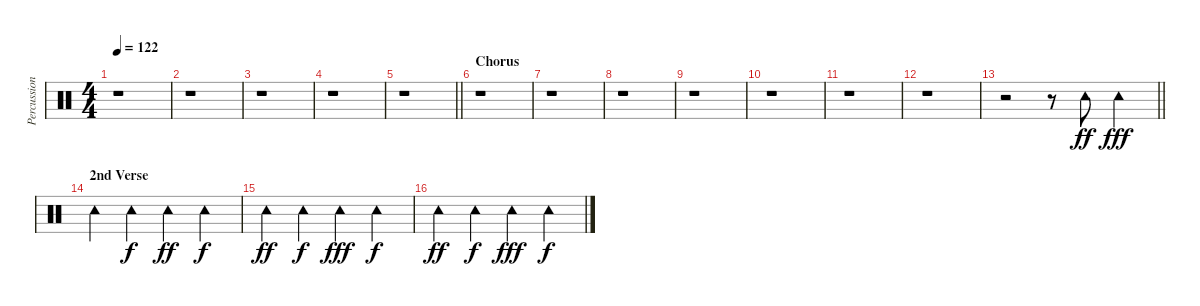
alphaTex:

\track ("Percussion" "Percussion") {instrument percussion}
\staff {score}
\articulation defaults
\ts (4 4)
\tempo 122
\clef neutral
\ks c
r.1{dy fff} |
r.1 |
r.1 |
r.1 |
\barLineRight lightlight
r.1 |
\section ("" "Chorus")
r.1 |
r.1 |
r.1 |
r.1 |
r.1 |
r.1 |
r.1 |
\barLineRight lightlight
r.2 r.8 "Tambourine (hit)".8{dy ff} "Tambourine (hit)".4{dy fff} |
\section ("" "2nd Verse")
"Tambourine (hit)".4 "Tambourine (hit)".4{dy f} "Tambourine (hit)".4{dy ff} "Tambourine (hit)".4{dy f} |
"Tambourine (hit)".4{dy ff} "Tambourine (hit)".4{dy f} "Tambourine (hit)".4{dy fff} "Tambourine (hit)".4{dy f} |
"Tambourine (hit)".4{dy ff} "Tambourine (hit)".4{dy f} "Tambourine (hit)".4{dy fff} "Tambourine (hit)".4{dy f}
